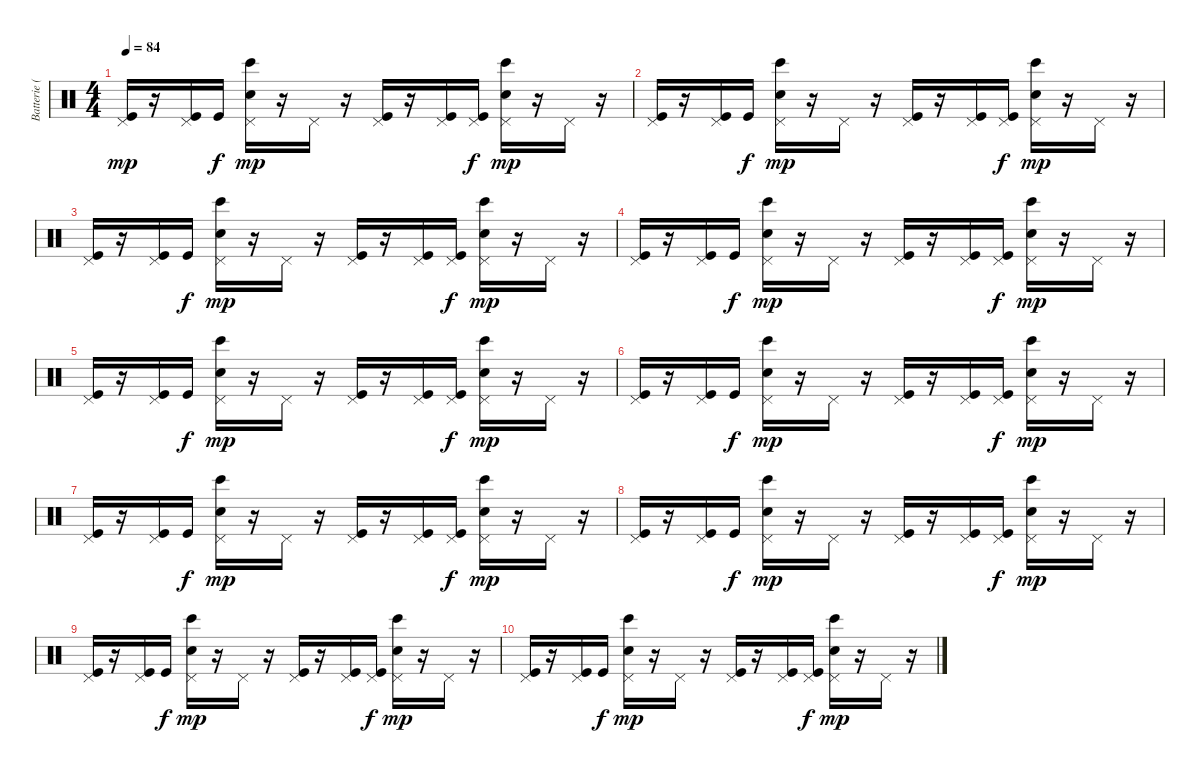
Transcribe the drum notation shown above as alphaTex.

\track ("Batterie (+hand claps)" "Batterie (") {instrument percussion}
\staff {score}
\articulation defaults
\ts (4 4)
\tempo 84
\clef neutral
\ks c
("Pedal Hi-Hat (hit)" "Kick (hit)").16{dy mp} r.16 ("Pedal Hi-Hat (hit)" "Kick (hit)").16 "Kick (hit)".16{dy f} ("Pedal Hi-Hat (hit)" "Hand Clap (hit)" "Bongo High (hit)").16{dy mp} r.16 "Pedal Hi-Hat (hit)".16 r.16 ("Pedal Hi-Hat (hit)" "Kick (hit)").16 r.16 ("Pedal Hi-Hat (hit)" "Kick (hit)").16 ("Pedal Hi-Hat (hit)" "Kick (hit)").16{dy f} ("Pedal Hi-Hat (hit)" "Hand Clap (hit)" "Bongo High (hit)").16{dy mp} r.16 "Pedal Hi-Hat (hit)".16 r.16 |
("Pedal Hi-Hat (hit)" "Kick (hit)").16 r.16 ("Pedal Hi-Hat (hit)" "Kick (hit)").16 "Kick (hit)".16{dy f} ("Pedal Hi-Hat (hit)" "Hand Clap (hit)" "Bongo High (hit)").16{dy mp} r.16 "Pedal Hi-Hat (hit)".16 r.16 ("Pedal Hi-Hat (hit)" "Kick (hit)").16 r.16 ("Pedal Hi-Hat (hit)" "Kick (hit)").16 ("Pedal Hi-Hat (hit)" "Kick (hit)").16{dy f} ("Pedal Hi-Hat (hit)" "Hand Clap (hit)" "Bongo High (hit)").16{dy mp} r.16 "Pedal Hi-Hat (hit)".16 r.16 |
("Pedal Hi-Hat (hit)" "Kick (hit)").16 r.16 ("Pedal Hi-Hat (hit)" "Kick (hit)").16 "Kick (hit)".16{dy f} ("Pedal Hi-Hat (hit)" "Hand Clap (hit)" "Bongo High (hit)").16{dy mp} r.16 "Pedal Hi-Hat (hit)".16 r.16 ("Pedal Hi-Hat (hit)" "Kick (hit)").16 r.16 ("Pedal Hi-Hat (hit)" "Kick (hit)").16 ("Pedal Hi-Hat (hit)" "Kick (hit)").16{dy f} ("Pedal Hi-Hat (hit)" "Hand Clap (hit)" "Bongo High (hit)").16{dy mp} r.16 "Pedal Hi-Hat (hit)".16 r.16 |
("Pedal Hi-Hat (hit)" "Kick (hit)").16 r.16 ("Pedal Hi-Hat (hit)" "Kick (hit)").16 "Kick (hit)".16{dy f} ("Pedal Hi-Hat (hit)" "Hand Clap (hit)" "Bongo High (hit)").16{dy mp} r.16 "Pedal Hi-Hat (hit)".16 r.16 ("Pedal Hi-Hat (hit)" "Kick (hit)").16 r.16 ("Pedal Hi-Hat (hit)" "Kick (hit)").16 ("Pedal Hi-Hat (hit)" "Kick (hit)").16{dy f} ("Pedal Hi-Hat (hit)" "Hand Clap (hit)" "Bongo High (hit)").16{dy mp} r.16 "Pedal Hi-Hat (hit)".16 r.16 |
("Pedal Hi-Hat (hit)" "Kick (hit)").16 r.16 ("Pedal Hi-Hat (hit)" "Kick (hit)").16 "Kick (hit)".16{dy f} ("Pedal Hi-Hat (hit)" "Hand Clap (hit)" "Bongo High (hit)").16{dy mp} r.16 "Pedal Hi-Hat (hit)".16 r.16 ("Pedal Hi-Hat (hit)" "Kick (hit)").16 r.16 ("Pedal Hi-Hat (hit)" "Kick (hit)").16 ("Pedal Hi-Hat (hit)" "Kick (hit)").16{dy f} ("Pedal Hi-Hat (hit)" "Hand Clap (hit)" "Bongo High (hit)").16{dy mp} r.16 "Pedal Hi-Hat (hit)".16 r.16 |
("Pedal Hi-Hat (hit)" "Kick (hit)").16 r.16 ("Pedal Hi-Hat (hit)" "Kick (hit)").16 "Kick (hit)".16{dy f} ("Pedal Hi-Hat (hit)" "Hand Clap (hit)" "Bongo High (hit)").16{dy mp} r.16 "Pedal Hi-Hat (hit)".16 r.16 ("Pedal Hi-Hat (hit)" "Kick (hit)").16 r.16 ("Pedal Hi-Hat (hit)" "Kick (hit)").16 ("Pedal Hi-Hat (hit)" "Kick (hit)").16{dy f} ("Pedal Hi-Hat (hit)" "Hand Clap (hit)" "Bongo High (hit)").16{dy mp} r.16 "Pedal Hi-Hat (hit)".16 r.16 |
("Pedal Hi-Hat (hit)" "Kick (hit)").16 r.16 ("Pedal Hi-Hat (hit)" "Kick (hit)").16 "Kick (hit)".16{dy f} ("Pedal Hi-Hat (hit)" "Hand Clap (hit)" "Bongo High (hit)").16{dy mp} r.16 "Pedal Hi-Hat (hit)".16 r.16 ("Pedal Hi-Hat (hit)" "Kick (hit)").16 r.16 ("Pedal Hi-Hat (hit)" "Kick (hit)").16 ("Pedal Hi-Hat (hit)" "Kick (hit)").16{dy f} ("Pedal Hi-Hat (hit)" "Hand Clap (hit)" "Bongo High (hit)").16{dy mp} r.16 "Pedal Hi-Hat (hit)".16 r.16 |
("Pedal Hi-Hat (hit)" "Kick (hit)").16 r.16 ("Pedal Hi-Hat (hit)" "Kick (hit)").16 "Kick (hit)".16{dy f} ("Pedal Hi-Hat (hit)" "Hand Clap (hit)" "Bongo High (hit)").16{dy mp} r.16 "Pedal Hi-Hat (hit)".16 r.16 ("Pedal Hi-Hat (hit)" "Kick (hit)").16 r.16 ("Pedal Hi-Hat (hit)" "Kick (hit)").16 ("Pedal Hi-Hat (hit)" "Kick (hit)").16{dy f} ("Pedal Hi-Hat (hit)" "Hand Clap (hit)" "Bongo High (hit)").16{dy mp} r.16 "Pedal Hi-Hat (hit)".16 r.16 |
("Pedal Hi-Hat (hit)" "Kick (hit)").16 r.16 ("Pedal Hi-Hat (hit)" "Kick (hit)").16 "Kick (hit)".16{dy f} ("Pedal Hi-Hat (hit)" "Hand Clap (hit)" "Bongo High (hit)").16{dy mp} r.16 "Pedal Hi-Hat (hit)".16 r.16 ("Pedal Hi-Hat (hit)" "Kick (hit)").16 r.16 ("Pedal Hi-Hat (hit)" "Kick (hit)").16 ("Pedal Hi-Hat (hit)" "Kick (hit)").16{dy f} ("Pedal Hi-Hat (hit)" "Hand Clap (hit)" "Bongo High (hit)").16{dy mp} r.16 "Pedal Hi-Hat (hit)".16 r.16 |
("Pedal Hi-Hat (hit)" "Kick (hit)").16 r.16 ("Pedal Hi-Hat (hit)" "Kick (hit)").16 "Kick (hit)".16{dy f} ("Pedal Hi-Hat (hit)" "Hand Clap (hit)" "Bongo High (hit)").16{dy mp} r.16 "Pedal Hi-Hat (hit)".16 r.16 ("Pedal Hi-Hat (hit)" "Kick (hit)").16 r.16 ("Pedal Hi-Hat (hit)" "Kick (hit)").16 ("Pedal Hi-Hat (hit)" "Kick (hit)").16{dy f} ("Pedal Hi-Hat (hit)" "Hand Clap (hit)" "Bongo High (hit)").16{dy mp} r.16 "Pedal Hi-Hat (hit)".16 r.16
